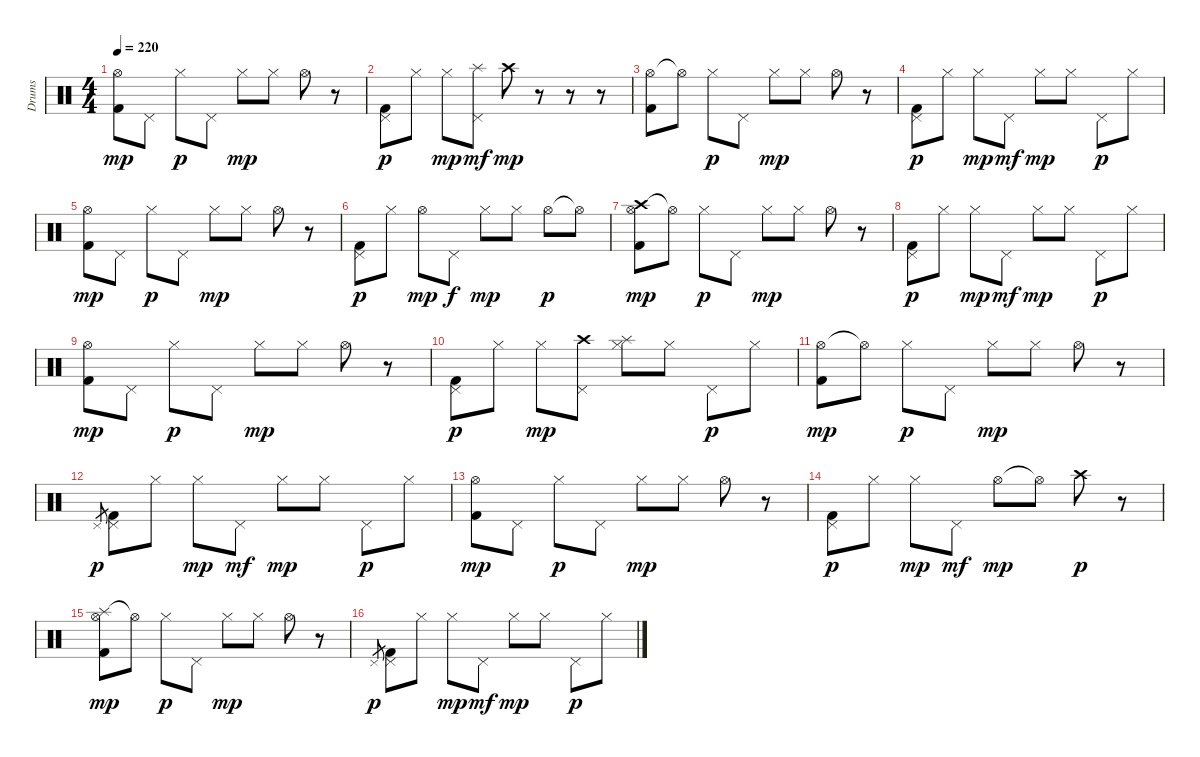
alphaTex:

\bracketExtendMode groupsimilarinstruments
\otherSystemsTrackNameOrientation horizontal
\track ("Drumkit" "Drums") {instrument percussion}
\staff {score}
\articulation defaults
\ts (4 4)
\tempo 220
\clef neutral
\ks c
("Hi-Hat (open)" "Kick (hit) 2").8{dy mp beam Down} "Pedal Hi-Hat (hit)".8{beam Down} "Hi-Hat (closed)".8{dy p beam Down} "Pedal Hi-Hat (hit)".8{beam Down} "Hi-Hat (closed)".8{dy mp beam Down} "Hi-Hat (closed)".8{beam Down} "Hi-Hat (open)".8{beam Down} r.8{beam Down} |
("Pedal Hi-Hat (hit)" "Kick (hit) 2").8{dy p beam Down} "Hi-Hat (closed)".8{beam Down} "Hi-Hat (closed)".8{dy mp beam Down} ("Splash (hit)" "Pedal Hi-Hat (hit)").8{dy mf beam Down} "Crash high (hit)".8{dy mp beam Down} r.8{beam Down} r.8{beam Down} r.8{beam Down} |
("Hi-Hat (open)" "Kick (hit) 2").8{beam Down} "Hi-Hat (open)"{t}.8{beam Down} "Hi-Hat (closed)".8{dy p beam Down} "Pedal Hi-Hat (hit)".8{beam Down} "Hi-Hat (closed)".8{dy mp beam Down} "Hi-Hat (closed)".8{beam Down} "Hi-Hat (open)".8{beam Down} r.8{beam Down} |
("Pedal Hi-Hat (hit)" "Kick (hit) 2").8{dy p beam Down} "Hi-Hat (closed)".8{beam Down} "Hi-Hat (closed)".8{dy mp beam Down} "Pedal Hi-Hat (hit)".8{dy mf beam Down} "Hi-Hat (closed)".8{dy mp beam Down} "Hi-Hat (closed)".8{beam Down} "Pedal Hi-Hat (hit)".8{dy p beam Down} "Hi-Hat (closed)".8{beam Down} |
("Hi-Hat (open)" "Kick (hit) 2").8{dy mp beam Down} "Pedal Hi-Hat (hit)".8{beam Down} "Hi-Hat (closed)".8{dy p beam Down} "Pedal Hi-Hat (hit)".8{beam Down} "Hi-Hat (closed)".8{dy mp beam Down} "Hi-Hat (closed)".8{beam Down} "Hi-Hat (open)".8{beam Down} r.8{beam Down} |
("Pedal Hi-Hat (hit)" "Kick (hit) 2").8{dy p beam Down} "Hi-Hat (closed)".8{beam Down} "Hi-Hat (open)".8{dy mp beam Down} "Pedal Hi-Hat (hit)".8{dy f beam Down} "Hi-Hat (closed)".8{dy mp beam Down} "Hi-Hat (closed)".8{beam Down} "Hi-Hat (open)".8{dy p beam Down} "Hi-Hat (open)"{t}.8{beam Down} |
("Crash high (hit)" "Hi-Hat (open)" "Kick (hit) 2").8{dy mp beam Down} "Hi-Hat (open)"{t}.8{beam Down} "Hi-Hat (closed)".8{dy p beam Down} "Pedal Hi-Hat (hit)".8{beam Down} "Hi-Hat (closed)".8{dy mp beam Down} "Hi-Hat (closed)".8{beam Down} "Hi-Hat (open)".8{beam Down} r.8{beam Down} |
("Pedal Hi-Hat (hit)" "Kick (hit) 2").8{dy p beam Down} "Hi-Hat (closed)".8{beam Down} "Hi-Hat (closed)".8{dy mp beam Down} "Pedal Hi-Hat (hit)".8{dy mf beam Down} "Hi-Hat (closed)".8{dy mp beam Down} "Hi-Hat (closed)".8{beam Down} "Pedal Hi-Hat (hit)".8{dy p beam Down} "Hi-Hat (closed)".8{beam Down} |
("Hi-Hat (open)" "Kick (hit) 2").8{dy mp beam Down} "Pedal Hi-Hat (hit)".8{beam Down} "Hi-Hat (closed)".8{dy p beam Down} "Pedal Hi-Hat (hit)".8{beam Down} "Hi-Hat (closed)".8{dy mp beam Down} "Hi-Hat (closed)".8{beam Down} "Hi-Hat (open)".8{beam Down} r.8{beam Down} |
("Pedal Hi-Hat (hit)" "Kick (hit) 2").8{dy p beam Down} "Hi-Hat (closed)".8{beam Down} "Hi-Hat (closed)".8{dy mp beam Down} ("Crash high (hit)" "Pedal Hi-Hat (hit)").8{beam Down} ("Splash (hit)" "Hi-Hat (closed)").8{beam Down} "Hi-Hat (closed)".8{beam Down} "Pedal Hi-Hat (hit)".8{dy p beam Down} "Hi-Hat (closed)".8{beam Down} |
("Hi-Hat (open)" "Kick (hit) 2").8{dy mp beam Down} "Hi-Hat (open)"{t}.8{beam Down} "Hi-Hat (closed)".8{dy p beam Down} "Pedal Hi-Hat (hit)".8{beam Down} "Hi-Hat (closed)".8{dy mp beam Down} "Hi-Hat (closed)".8{beam Down} "Hi-Hat (open)".8{beam Down} r.8{beam Down} |
"Pedal Hi-Hat (hit)".8{gr dy p beam Up} ("Pedal Hi-Hat (hit)" "Kick (hit) 2").8{beam Down} "Hi-Hat (closed)".8{beam Down} "Hi-Hat (closed)".8{dy mp beam Down} "Pedal Hi-Hat (hit)".8{dy mf beam Down} "Hi-Hat (closed)".8{dy mp beam Down} "Hi-Hat (closed)".8{beam Down} "Pedal Hi-Hat (hit)".8{dy p beam Down} "Hi-Hat (closed)".8{beam Down} |
("Hi-Hat (open)" "Kick (hit) 2").8{dy mp beam Down} "Pedal Hi-Hat (hit)".8{beam Down} "Hi-Hat (closed)".8{dy p beam Down} "Pedal Hi-Hat (hit)".8{beam Down} "Hi-Hat (closed)".8{dy mp beam Down} "Hi-Hat (closed)".8{beam Down} "Hi-Hat (open)".8{beam Down} r.8{beam Down} |
("Pedal Hi-Hat (hit)" "Kick (hit) 2").8{dy p beam Down} "Hi-Hat (closed)".8{beam Down} "Hi-Hat (closed)".8{dy mp beam Down} "Pedal Hi-Hat (hit)".8{dy mf beam Down} "Hi-Hat (open)".8{dy mp beam Down} "Hi-Hat (open)"{t}.8{beam Down} "Crash high (hit)".8{dy p beam Down} r.8{beam Down} |
("Splash (hit)" "Hi-Hat (open)" "Kick (hit) 2").8{dy mp beam Down} "Hi-Hat (open)"{t}.8{beam Down} "Hi-Hat (closed)".8{dy p beam Down} "Pedal Hi-Hat (hit)".8{beam Down} "Hi-Hat (closed)".8{dy mp beam Down} "Hi-Hat (closed)".8{beam Down} "Hi-Hat (open)".8{beam Down} r.8{beam Down} |
"Pedal Hi-Hat (hit)".8{gr dy p beam Up} ("Pedal Hi-Hat (hit)" "Kick (hit) 2").8{beam Down} "Hi-Hat (closed)".8{beam Down} "Hi-Hat (closed)".8{dy mp beam Down} "Pedal Hi-Hat (hit)".8{dy mf beam Down} "Hi-Hat (closed)".8{dy mp beam Down} "Hi-Hat (closed)".8{beam Down} "Pedal Hi-Hat (hit)".8{dy p beam Down} "Hi-Hat (closed)".8{beam Down}
